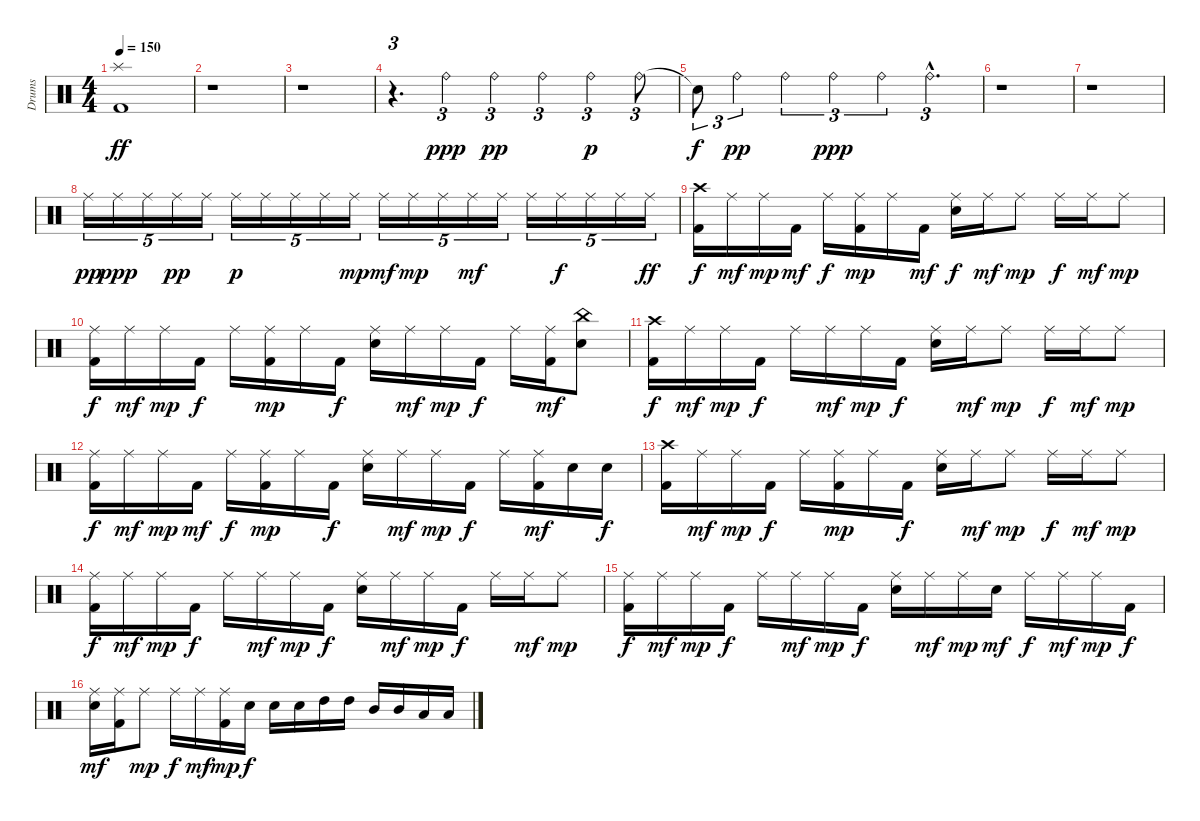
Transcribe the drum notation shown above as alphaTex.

\track ("Drums" "Drums") {instrument percussion}
\staff {score}
\articulation defaults
\ts (4 4)
\tempo 150
\clef neutral
\ks c
("Splash (hit)" "Kick (hit) 2").1{dy ff} |
r.1 |
r.1 |
r.4{d tu (3 2)} "Ride (bell)".4{tu (3 2) dy ppp} "Ride (bell)".4{tu (3 2) dy pp} "Ride (bell)".4{tu (3 2)} "Ride (bell)".4{tu (3 2) dy p} "Ride (bell)".8{tu (3 2)} |
"Snare (hit)"{t}.8{tu (3 2) dy f} "Ride (bell)".4{tu (3 2) dy pp} "Ride (bell)".4{tu (3 2)} "Ride (bell)".4{tu (3 2) dy ppp} "Ride (bell)".4{tu (3 2)} "Ride (bell)"{hac}.4{d tu (3 2)} |
r.1 |
r.1 |
"Ride (middle)".16{tu (5 4) dy pp} "Ride (middle)".16{tu (5 4) dy ppp} "Ride (middle)".16{tu (5 4)} "Ride (middle)".16{tu (5 4) dy pp} "Ride (middle)".16{tu (5 4)} "Ride (middle)".16{tu (5 4) dy p} "Ride (middle)".16{tu (5 4)} "Ride (middle)".16{tu (5 4)} "Ride (middle)".16{tu (5 4)} "Ride (middle)".16{tu (5 4) dy mp} "Ride (middle)".16{tu (5 4) dy mf} "Ride (middle)".16{tu (5 4) dy mp} "Ride (middle)".16{tu (5 4)} "Ride (middle)".16{tu (5 4) dy mf} "Ride (middle)".16{tu (5 4)} "Ride (middle)".16{tu (5 4)} "Ride (middle)".16{tu (5 4) dy f} "Ride (middle)".16{tu (5 4)} "Ride (middle)".16{tu (5 4)} "Ride (middle)".16{tu (5 4) dy ff} |
("Crash high (hit)" "Kick (hit) 2").16{dy f} "Ride (middle)".16{dy mf} "Ride (middle)".16{dy mp} "Kick (hit) 2".16{dy mf} "Ride (middle)".16{dy f} ("Ride (middle)" "Kick (hit) 2").16{dy mp} "Ride (middle)".16 "Kick (hit) 2".16{dy mf} ("Ride (middle)" "Snare (hit) 2").16{dy f} "Ride (middle)".16{dy mf} "Ride (middle)".8{dy mp} "Ride (middle)".16{dy f} "Ride (middle)".16{dy mf} "Ride (middle)".8{dy mp} |
("Ride (middle)" "Kick (hit) 2").16{dy f} "Ride (middle)".16{dy mf} "Ride (middle)".16{dy mp} "Kick (hit) 2".16{dy f} "Ride (middle)".16 ("Ride (middle)" "Kick (hit) 2").16{dy mp} "Ride (middle)".16 "Kick (hit) 2".16{dy f} ("Ride (middle)" "Snare (hit) 2").16 "Ride (middle)".16{dy mf} "Ride (middle)".16{dy mp} "Kick (hit) 2".16{dy f} "Ride (middle)".16 ("Ride (middle)" "Kick (hit) 2").16{dy mf} ("China (hit)" "Snare (hit) 2").8 |
("Crash high (hit)" "Kick (hit) 2").16{dy f} "Ride (middle)".16{dy mf} "Ride (middle)".16{dy mp} "Kick (hit) 2".16{dy f} "Ride (middle)".16 "Ride (middle)".16{dy mf} "Ride (middle)".16{dy mp} "Kick (hit) 2".16{dy f} ("Ride (middle)" "Snare (hit) 2").16 "Ride (middle)".16{dy mf} "Ride (middle)".8{dy mp} "Ride (middle)".16{dy f} "Ride (middle)".16{dy mf} "Ride (middle)".8{dy mp} |
("Ride (middle)" "Kick (hit) 2").16{dy f} "Ride (middle)".16{dy mf} "Ride (middle)".16{dy mp} "Kick (hit) 2".16{dy mf} "Ride (middle)".16{dy f} ("Ride (middle)" "Kick (hit) 2").16{dy mp} "Ride (middle)".16 "Kick (hit) 2".16{dy f} ("Ride (middle)" "Snare (hit) 2").16 "Ride (middle)".16{dy mf} "Ride (middle)".16{dy mp} "Kick (hit) 2".16{dy f} "Ride (middle)".16 ("Ride (middle)" "Kick (hit) 2").16{dy mf} "Snare (hit) 2".16 "Snare (hit) 2".16{dy f} |
("Crash high (hit)" "Kick (hit) 2").16 "Ride (middle)".16{dy mf} "Ride (middle)".16{dy mp} "Kick (hit) 2".16{dy f} "Ride (middle)".16 ("Ride (middle)" "Kick (hit) 2").16{dy mp} "Ride (middle)".16 "Kick (hit) 2".16{dy f} ("Ride (middle)" "Snare (hit) 2").16 "Ride (middle)".16{dy mf} "Ride (middle)".8{dy mp} "Ride (middle)".16{dy f} "Ride (middle)".16{dy mf} "Ride (middle)".8{dy mp} |
("Ride (middle)" "Kick (hit) 2").16{dy f} "Ride (middle)".16{dy mf} "Ride (middle)".16{dy mp} "Kick (hit) 2".16{dy f} "Ride (middle)".16 "Ride (middle)".16{dy mf} "Ride (middle)".16{dy mp} "Kick (hit) 2".16{dy f} ("Ride (middle)" "Snare (hit) 2").16 "Ride (middle)".16{dy mf} "Ride (middle)".16{dy mp} "Kick (hit) 2".16{dy f} "Ride (middle)".16 "Ride (middle)".16{dy mf} "Ride (middle)".8{dy mp} |
("Ride (middle)" "Kick (hit) 2").16{dy f} "Ride (middle)".16{dy mf} "Ride (middle)".16{dy mp} "Kick (hit) 2".16{dy f} "Ride (middle)".16 "Ride (middle)".16{dy mf} "Ride (middle)".16{dy mp} "Kick (hit) 2".16{dy f} ("Ride (middle)" "Snare (hit) 2").16 "Ride (middle)".16{dy mf} "Ride (middle)".16{dy mp} "Snare (hit) 2".16{dy mf} "Ride (middle)".16{dy f} "Ride (middle)".16{dy mf} "Ride (middle)".16{dy mp} "Kick (hit) 2".16{dy f} |
("Ride (middle)" "Snare (hit) 2").16{dy mf} ("Ride (middle)" "Kick (hit) 2").16 "Ride (middle)".8{dy mp} "Ride (middle)".16{dy f} "Ride (middle)".16{dy mf} ("Ride (middle)" "Kick (hit) 2").16{dy mp} "Snare (hit) 2".16{dy f} "Snare (hit) 2".16 "Snare (hit) 2".16 "High Tom (hit)".16 "High Tom (hit)".16 "Mid Tom (hit)".16 "Mid Tom (hit)".16 "Low Tom (hit)".16 "Low Tom (hit)".16
